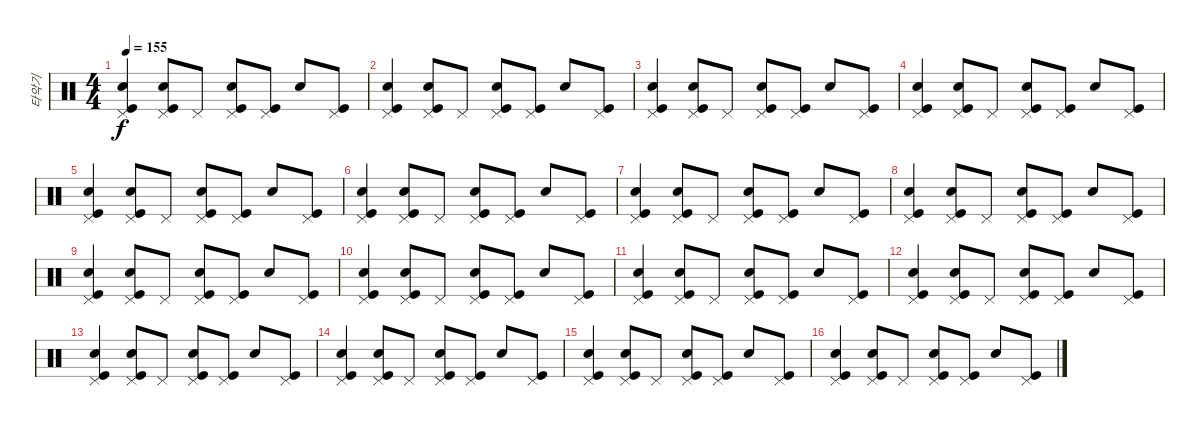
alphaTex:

\track ("타악기" "타악기") {instrument percussion}
\staff {score}
\articulation defaults
\ts (4 4)
\tempo 155
\clef neutral
\ks c
("Pedal Hi-Hat (hit)" "Snare (hit) 2" "Kick (hit)").4{dy f} ("Pedal Hi-Hat (hit)" "Electric Snare (hit)" "Kick (hit)").8 "Pedal Hi-Hat (hit)".8 ("Pedal Hi-Hat (hit)" "Snare (hit) 2" "Kick (hit)").8 ("Pedal Hi-Hat (hit)" "Kick (hit)").8 "Electric Snare (hit)".8 ("Pedal Hi-Hat (hit)" "Kick (hit)").8 |
("Pedal Hi-Hat (hit)" "Snare (hit) 2" "Kick (hit)").4 ("Pedal Hi-Hat (hit)" "Electric Snare (hit)" "Kick (hit)").8 "Pedal Hi-Hat (hit)".8 ("Pedal Hi-Hat (hit)" "Snare (hit) 2" "Kick (hit)").8 ("Pedal Hi-Hat (hit)" "Kick (hit)").8 "Electric Snare (hit)".8 ("Pedal Hi-Hat (hit)" "Kick (hit)").8 |
("Pedal Hi-Hat (hit)" "Snare (hit) 2" "Kick (hit)").4 ("Pedal Hi-Hat (hit)" "Electric Snare (hit)" "Kick (hit)").8 "Pedal Hi-Hat (hit)".8 ("Pedal Hi-Hat (hit)" "Snare (hit) 2" "Kick (hit)").8 ("Pedal Hi-Hat (hit)" "Kick (hit)").8 "Electric Snare (hit)".8 ("Pedal Hi-Hat (hit)" "Kick (hit)").8 |
("Pedal Hi-Hat (hit)" "Snare (hit) 2" "Kick (hit)").4 ("Pedal Hi-Hat (hit)" "Electric Snare (hit)" "Kick (hit)").8 "Pedal Hi-Hat (hit)".8 ("Pedal Hi-Hat (hit)" "Snare (hit) 2" "Kick (hit)").8 ("Pedal Hi-Hat (hit)" "Kick (hit)").8 "Electric Snare (hit)".8 ("Pedal Hi-Hat (hit)" "Kick (hit)").8 |
("Pedal Hi-Hat (hit)" "Snare (hit) 2" "Kick (hit)").4 ("Pedal Hi-Hat (hit)" "Electric Snare (hit)" "Kick (hit)").8 "Pedal Hi-Hat (hit)".8 ("Pedal Hi-Hat (hit)" "Snare (hit) 2" "Kick (hit)").8 ("Pedal Hi-Hat (hit)" "Kick (hit)").8 "Electric Snare (hit)".8 ("Pedal Hi-Hat (hit)" "Kick (hit)").8 |
("Pedal Hi-Hat (hit)" "Snare (hit) 2" "Kick (hit)").4 ("Pedal Hi-Hat (hit)" "Electric Snare (hit)" "Kick (hit)").8 "Pedal Hi-Hat (hit)".8 ("Pedal Hi-Hat (hit)" "Snare (hit) 2" "Kick (hit)").8 ("Pedal Hi-Hat (hit)" "Kick (hit)").8 "Electric Snare (hit)".8 ("Pedal Hi-Hat (hit)" "Kick (hit)").8 |
("Pedal Hi-Hat (hit)" "Snare (hit) 2" "Kick (hit)").4 ("Pedal Hi-Hat (hit)" "Electric Snare (hit)" "Kick (hit)").8 "Pedal Hi-Hat (hit)".8 ("Pedal Hi-Hat (hit)" "Snare (hit) 2" "Kick (hit)").8 ("Pedal Hi-Hat (hit)" "Kick (hit)").8 "Electric Snare (hit)".8 ("Pedal Hi-Hat (hit)" "Kick (hit)").8 |
("Pedal Hi-Hat (hit)" "Snare (hit) 2" "Kick (hit)").4 ("Pedal Hi-Hat (hit)" "Electric Snare (hit)" "Kick (hit)").8 "Pedal Hi-Hat (hit)".8 ("Pedal Hi-Hat (hit)" "Snare (hit) 2" "Kick (hit)").8 ("Pedal Hi-Hat (hit)" "Kick (hit)").8 "Electric Snare (hit)".8 ("Pedal Hi-Hat (hit)" "Kick (hit)").8 |
("Pedal Hi-Hat (hit)" "Snare (hit) 2" "Kick (hit)").4 ("Pedal Hi-Hat (hit)" "Electric Snare (hit)" "Kick (hit)").8 "Pedal Hi-Hat (hit)".8 ("Pedal Hi-Hat (hit)" "Snare (hit) 2" "Kick (hit)").8 ("Pedal Hi-Hat (hit)" "Kick (hit)").8 "Electric Snare (hit)".8 ("Pedal Hi-Hat (hit)" "Kick (hit)").8 |
("Pedal Hi-Hat (hit)" "Snare (hit) 2" "Kick (hit)").4 ("Pedal Hi-Hat (hit)" "Electric Snare (hit)" "Kick (hit)").8 "Pedal Hi-Hat (hit)".8 ("Pedal Hi-Hat (hit)" "Snare (hit) 2" "Kick (hit)").8 ("Pedal Hi-Hat (hit)" "Kick (hit)").8 "Electric Snare (hit)".8 ("Pedal Hi-Hat (hit)" "Kick (hit)").8 |
("Pedal Hi-Hat (hit)" "Snare (hit) 2" "Kick (hit)").4 ("Pedal Hi-Hat (hit)" "Electric Snare (hit)" "Kick (hit)").8 "Pedal Hi-Hat (hit)".8 ("Pedal Hi-Hat (hit)" "Snare (hit) 2" "Kick (hit)").8 ("Pedal Hi-Hat (hit)" "Kick (hit)").8 "Electric Snare (hit)".8 ("Pedal Hi-Hat (hit)" "Kick (hit)").8 |
("Pedal Hi-Hat (hit)" "Snare (hit) 2" "Kick (hit)").4 ("Pedal Hi-Hat (hit)" "Electric Snare (hit)" "Kick (hit)").8 "Pedal Hi-Hat (hit)".8 ("Pedal Hi-Hat (hit)" "Snare (hit) 2" "Kick (hit)").8 ("Pedal Hi-Hat (hit)" "Kick (hit)").8 "Electric Snare (hit)".8 ("Pedal Hi-Hat (hit)" "Kick (hit)").8 |
("Pedal Hi-Hat (hit)" "Snare (hit) 2" "Kick (hit)").4 ("Pedal Hi-Hat (hit)" "Electric Snare (hit)" "Kick (hit)").8 "Pedal Hi-Hat (hit)".8 ("Pedal Hi-Hat (hit)" "Snare (hit) 2" "Kick (hit)").8 ("Pedal Hi-Hat (hit)" "Kick (hit)").8 "Electric Snare (hit)".8 ("Pedal Hi-Hat (hit)" "Kick (hit)").8 |
("Pedal Hi-Hat (hit)" "Snare (hit) 2" "Kick (hit)").4 ("Pedal Hi-Hat (hit)" "Electric Snare (hit)" "Kick (hit)").8 "Pedal Hi-Hat (hit)".8 ("Pedal Hi-Hat (hit)" "Snare (hit) 2" "Kick (hit)").8 ("Pedal Hi-Hat (hit)" "Kick (hit)").8 "Electric Snare (hit)".8 ("Pedal Hi-Hat (hit)" "Kick (hit)").8 |
("Pedal Hi-Hat (hit)" "Snare (hit) 2" "Kick (hit)").4 ("Pedal Hi-Hat (hit)" "Electric Snare (hit)" "Kick (hit)").8 "Pedal Hi-Hat (hit)".8 ("Pedal Hi-Hat (hit)" "Snare (hit) 2" "Kick (hit)").8 ("Pedal Hi-Hat (hit)" "Kick (hit)").8 "Electric Snare (hit)".8 ("Pedal Hi-Hat (hit)" "Kick (hit)").8 |
("Pedal Hi-Hat (hit)" "Snare (hit) 2" "Kick (hit)").4 ("Pedal Hi-Hat (hit)" "Electric Snare (hit)" "Kick (hit)").8 "Pedal Hi-Hat (hit)".8 ("Pedal Hi-Hat (hit)" "Snare (hit) 2" "Kick (hit)").8 ("Pedal Hi-Hat (hit)" "Kick (hit)").8 "Electric Snare (hit)".8 ("Pedal Hi-Hat (hit)" "Kick (hit)").8
